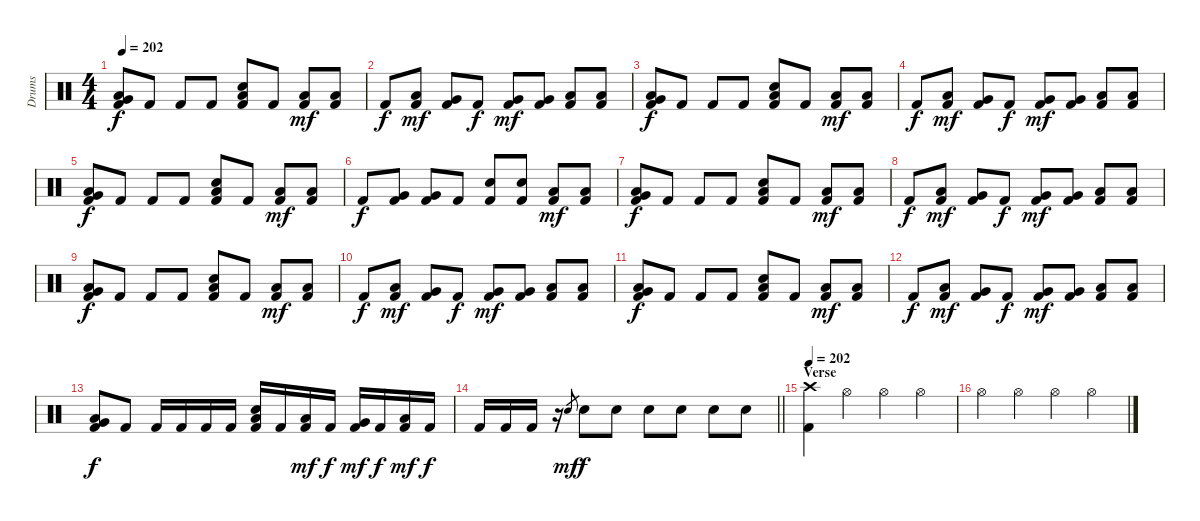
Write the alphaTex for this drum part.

\track ("Drums" "Drums") {instrument percussion}
\staff {score}
\articulation defaults
\ts (4 4)
\tempo 202
\clef neutral
\ks c
("Very Low Tom (hit)" "Low Floor Tom (hit)" "Kick (hit) 2").8{dy f} "Kick (hit) 2".8 "Kick (hit) 2".8 "Kick (hit) 2".8 ("Low Tom (hit)" "Snare (hit) 2" "Kick (hit) 2").8 "Kick (hit) 2".8 ("Low Tom (hit)" "Kick (hit) 2").8{dy mf} ("Low Tom (hit)" "Kick (hit) 2").8 |
"Kick (hit) 2".8{dy f} ("Low Tom (hit)" "Kick (hit) 2").8{dy mf} ("Very Low Tom (hit)" "Kick (hit) 2").8 "Kick (hit) 2".8{dy f} ("Very Low Tom (hit)" "Kick (hit) 2").8{dy mf} ("Very Low Tom (hit)" "Kick (hit) 2").8 ("Low Floor Tom (hit)" "Kick (hit) 2").8 ("Low Floor Tom (hit)" "Kick (hit) 2").8 |
("Very Low Tom (hit)" "Low Floor Tom (hit)" "Kick (hit) 2").8{dy f} "Kick (hit) 2".8 "Kick (hit) 2".8 "Kick (hit) 2".8 ("Low Tom (hit)" "Snare (hit) 2" "Kick (hit) 2").8 "Kick (hit) 2".8 ("Low Tom (hit)" "Kick (hit) 2").8{dy mf} ("Low Tom (hit)" "Kick (hit) 2").8 |
"Kick (hit) 2".8{dy f} ("Low Tom (hit)" "Kick (hit) 2").8{dy mf} ("Very Low Tom (hit)" "Kick (hit) 2").8 "Kick (hit) 2".8{dy f} ("Very Low Tom (hit)" "Kick (hit) 2").8{dy mf} ("Very Low Tom (hit)" "Kick (hit) 2").8 ("Low Floor Tom (hit)" "Kick (hit) 2").8 ("Low Floor Tom (hit)" "Kick (hit) 2").8 |
("Very Low Tom (hit)" "Low Floor Tom (hit)" "Kick (hit) 2").8{dy f} "Kick (hit) 2".8 "Kick (hit) 2".8 "Kick (hit) 2".8 ("Low Tom (hit)" "Snare (hit) 2" "Kick (hit) 2").8 "Kick (hit) 2".8 ("Low Tom (hit)" "Kick (hit) 2").8{dy mf} ("Low Tom (hit)" "Kick (hit) 2").8 |
"Kick (hit) 2".8{dy f} ("Very Low Tom (hit)" "Kick (hit) 2").8 ("Very Low Tom (hit)" "Kick (hit) 2").8 "Kick (hit) 2".8 ("Snare (hit) 2" "Kick (hit) 2").8 ("Snare (hit) 2" "Kick (hit) 2").8 ("Low Floor Tom (hit)" "Kick (hit) 2").8{dy mf} ("Low Floor Tom (hit)" "Kick (hit) 2").8 |
("Very Low Tom (hit)" "Low Floor Tom (hit)" "Kick (hit) 2").8{dy f} "Kick (hit) 2".8 "Kick (hit) 2".8 "Kick (hit) 2".8 ("Low Tom (hit)" "Snare (hit) 2" "Kick (hit) 2").8 "Kick (hit) 2".8 ("Low Tom (hit)" "Kick (hit) 2").8{dy mf} ("Low Tom (hit)" "Kick (hit) 2").8 |
"Kick (hit) 2".8{dy f} ("Low Tom (hit)" "Kick (hit) 2").8{dy mf} ("Very Low Tom (hit)" "Kick (hit) 2").8 "Kick (hit) 2".8{dy f} ("Very Low Tom (hit)" "Kick (hit) 2").8{dy mf} ("Very Low Tom (hit)" "Kick (hit) 2").8 ("Low Floor Tom (hit)" "Kick (hit) 2").8 ("Low Floor Tom (hit)" "Kick (hit) 2").8 |
("Very Low Tom (hit)" "Low Floor Tom (hit)" "Kick (hit) 2").8{dy f} "Kick (hit) 2".8 "Kick (hit) 2".8 "Kick (hit) 2".8 ("Low Tom (hit)" "Snare (hit) 2" "Kick (hit) 2").8 "Kick (hit) 2".8 ("Low Tom (hit)" "Kick (hit) 2").8{dy mf} ("Low Tom (hit)" "Kick (hit) 2").8 |
"Kick (hit) 2".8{dy f} ("Low Tom (hit)" "Kick (hit) 2").8{dy mf} ("Very Low Tom (hit)" "Kick (hit) 2").8 "Kick (hit) 2".8{dy f} ("Very Low Tom (hit)" "Kick (hit) 2").8{dy mf} ("Very Low Tom (hit)" "Kick (hit) 2").8 ("Low Floor Tom (hit)" "Kick (hit) 2").8 ("Low Floor Tom (hit)" "Kick (hit) 2").8 |
("Very Low Tom (hit)" "Low Floor Tom (hit)" "Kick (hit) 2").8{dy f} "Kick (hit) 2".8 "Kick (hit) 2".8 "Kick (hit) 2".8 ("Low Tom (hit)" "Snare (hit) 2" "Kick (hit) 2").8 "Kick (hit) 2".8 ("Low Tom (hit)" "Kick (hit) 2").8{dy mf} ("Low Tom (hit)" "Kick (hit) 2").8 |
"Kick (hit) 2".8{dy f} ("Low Tom (hit)" "Kick (hit) 2").8{dy mf} ("Very Low Tom (hit)" "Kick (hit) 2").8 "Kick (hit) 2".8{dy f} ("Very Low Tom (hit)" "Kick (hit) 2").8{dy mf} ("Very Low Tom (hit)" "Kick (hit) 2").8 ("Low Floor Tom (hit)" "Kick (hit) 2").8 ("Low Floor Tom (hit)" "Kick (hit) 2").8 |
("Very Low Tom (hit)" "Low Floor Tom (hit)" "Kick (hit) 2").8{dy f} "Kick (hit) 2".8 "Kick (hit) 2".16 "Kick (hit) 2".16 "Kick (hit) 2".16 "Kick (hit) 2".16 ("Low Tom (hit)" "Snare (hit) 2" "Kick (hit) 2").16 "Kick (hit) 2".16 ("Low Tom (hit)" "Kick (hit) 2").16{dy mf} "Kick (hit) 2".16{dy f} ("Very Low Tom (hit)" "Kick (hit) 2").16{dy mf} "Kick (hit) 2".16{dy f} ("Low Floor Tom (hit)" "Kick (hit) 2").16{dy mf} "Kick (hit) 2".16{dy f} |
\barLineRight lightlight "Kick (hit) 2".16 "Kick (hit) 2".16 "Kick (hit) 2".16
r.16 "Snare (hit) 2".8{gr dy mf} "Snare (hit) 2".8{dy f} "Snare (hit) 2".8 "Snare (hit) 2".8 "Snare (hit) 2".8 "Snare (hit) 2".8 "Snare (hit) 2".8 |
\section ("" "Verse")
\tempo 202
("Crash high (hit)" "Kick (hit) 2").4 "Hi-Hat (open)".4 "Hi-Hat (open)".4 "Hi-Hat (open)".4 |
"Hi-Hat (open)".4 "Hi-Hat (open)".4 "Hi-Hat (open)".4 "Hi-Hat (open)".4
